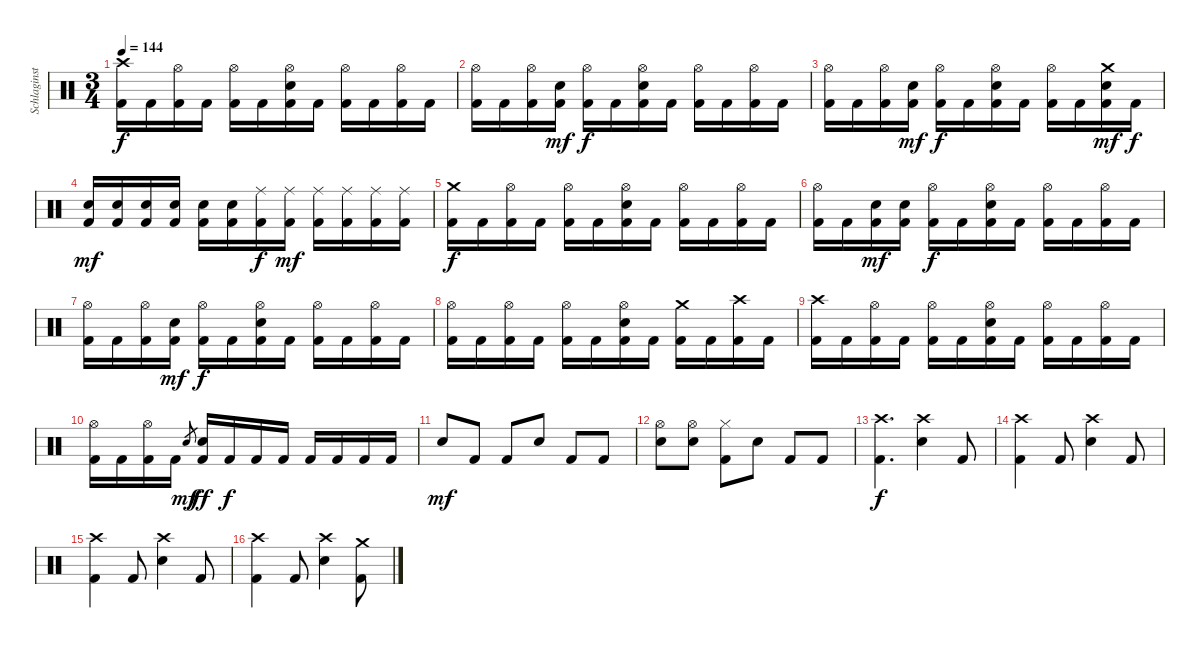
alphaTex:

\track ("Schlaginstrumente - Auswahl" "Schlaginst") {instrument percussion}
\staff {score}
\articulation defaults
\ts (3 4)
\tempo 144
\clef neutral
\ks c
("Crash high (hit)" "Kick (hit) 2").16{dy f} "Kick (hit) 2".16 ("Hi-Hat (open)" "Kick (hit) 2").16 "Kick (hit) 2".16 ("Hi-Hat (open)" "Kick (hit) 2").16 "Kick (hit) 2".16 ("Hi-Hat (open)" "Snare (hit) 2" "Kick (hit) 2").16 "Kick (hit) 2".16 ("Hi-Hat (open)" "Kick (hit) 2").16 "Kick (hit) 2".16 ("Hi-Hat (open)" "Kick (hit) 2").16 "Kick (hit) 2".16 |
("Hi-Hat (open)" "Kick (hit) 2").16 "Kick (hit) 2".16 ("Hi-Hat (open)" "Kick (hit) 2").16 ("Snare (hit) 2" "Kick (hit) 2").16{dy mf} ("Hi-Hat (open)" "Kick (hit) 2").16{dy f} "Kick (hit) 2".16 ("Hi-Hat (open)" "Snare (hit) 2" "Kick (hit) 2").16 "Kick (hit) 2".16 ("Hi-Hat (open)" "Kick (hit) 2").16 "Kick (hit) 2".16 ("Hi-Hat (open)" "Kick (hit) 2").16 "Kick (hit) 2".16 |
("Hi-Hat (open)" "Kick (hit) 2").16 "Kick (hit) 2".16 ("Hi-Hat (open)" "Kick (hit) 2").16 ("Snare (hit) 2" "Kick (hit) 2").16{dy mf} ("Hi-Hat (open)" "Kick (hit) 2").16{dy f} "Kick (hit) 2".16 ("Hi-Hat (open)" "Snare (hit) 2" "Kick (hit) 2").16 "Kick (hit) 2".16 ("Hi-Hat (open)" "Kick (hit) 2").16 "Kick (hit) 2".16 ("Crash medium (hit)" "Snare (hit) 2" "Kick (hit) 2").16{dy mf} "Kick (hit) 2".16{dy f} |
("Snare (hit) 2" "Kick (hit) 2").16{dy mf} ("Snare (hit) 2" "Kick (hit) 2").16 ("Snare (hit) 2" "Kick (hit) 2").16 ("Snare (hit) 2" "Kick (hit) 2").16 ("Snare (hit) 2" "Kick (hit) 2").16 ("Snare (hit) 2" "Kick (hit) 2").16 ("Ride (middle)" "Kick (hit) 2").16{dy f} ("Ride (middle)" "Kick (hit) 2").16{dy mf} ("Ride (middle)" "Kick (hit) 2").16 ("Ride (middle)" "Kick (hit) 2").16 ("Ride (middle)" "Kick (hit) 2").16 ("Ride (middle)" "Kick (hit) 2").16 |
("Crash medium (hit)" "Kick (hit) 2").16{dy f} "Kick (hit) 2".16 ("Hi-Hat (open)" "Kick (hit) 2").16 "Kick (hit) 2".16 ("Hi-Hat (open)" "Kick (hit) 2").16 "Kick (hit) 2".16 ("Hi-Hat (open)" "Snare (hit) 2" "Kick (hit) 2").16 "Kick (hit) 2".16 ("Hi-Hat (open)" "Kick (hit) 2").16 "Kick (hit) 2".16 ("Hi-Hat (open)" "Kick (hit) 2").16 "Kick (hit) 2".16 |
("Hi-Hat (open)" "Kick (hit) 2").16 "Kick (hit) 2".16 ("Snare (hit) 2" "Kick (hit) 2").16{dy mf} ("Snare (hit) 2" "Kick (hit) 2").16 ("Hi-Hat (open)" "Kick (hit) 2").16{dy f} "Kick (hit) 2".16 ("Hi-Hat (open)" "Snare (hit) 2" "Kick (hit) 2").16 "Kick (hit) 2".16 ("Hi-Hat (open)" "Kick (hit) 2").16 "Kick (hit) 2".16 ("Hi-Hat (open)" "Kick (hit) 2").16 "Kick (hit) 2".16 |
("Hi-Hat (open)" "Kick (hit) 2").16 "Kick (hit) 2".16 ("Hi-Hat (open)" "Kick (hit) 2").16 ("Snare (hit) 2" "Kick (hit) 2").16{dy mf} ("Hi-Hat (open)" "Kick (hit) 2").16{dy f} "Kick (hit) 2".16 ("Hi-Hat (open)" "Snare (hit) 2" "Kick (hit) 2").16 "Kick (hit) 2".16 ("Hi-Hat (open)" "Kick (hit) 2").16 "Kick (hit) 2".16 ("Hi-Hat (open)" "Kick (hit) 2").16 "Kick (hit) 2".16 |
("Hi-Hat (open)" "Kick (hit) 2").16 "Kick (hit) 2".16 ("Hi-Hat (open)" "Kick (hit) 2").16 "Kick (hit) 2".16 ("Hi-Hat (open)" "Kick (hit) 2").16 "Kick (hit) 2".16 ("Hi-Hat (open)" "Snare (hit) 2" "Kick (hit) 2").16 "Kick (hit) 2".16 ("Crash medium (hit)" "Kick (hit) 2").16 "Kick (hit) 2".16 ("Crash high (hit)" "Kick (hit) 2").16 "Kick (hit) 2".16 |
("Crash high (hit)" "Kick (hit) 2").16 "Kick (hit) 2".16 ("Hi-Hat (open)" "Kick (hit) 2").16 "Kick (hit) 2".16 ("Hi-Hat (open)" "Kick (hit) 2").16 "Kick (hit) 2".16 ("Hi-Hat (open)" "Snare (hit) 2" "Kick (hit) 2").16 "Kick (hit) 2".16 ("Hi-Hat (open)" "Kick (hit) 2").16 "Kick (hit) 2".16 ("Hi-Hat (open)" "Kick (hit) 2").16 "Kick (hit) 2".16 |
("Hi-Hat (open)" "Kick (hit) 2").16 "Kick (hit) 2".16 ("Hi-Hat (open)" "Kick (hit) 2").16 "Kick (hit) 2".16 "Snare (hit) 2".8{gr dy mf} ("Snare (hit) 2" "Kick (hit) 2").16{dy ff} "Kick (hit) 2".16{dy f} "Kick (hit) 2".16 "Kick (hit) 2".16 "Kick (hit) 2".16 "Kick (hit) 2".16 "Kick (hit) 2".16 "Kick (hit) 2".16 |
"Snare (hit) 2".8{dy mf} "Kick (hit) 2".8 "Kick (hit) 2".8 "Snare (hit) 2".8 "Kick (hit) 2".8 "Kick (hit) 2".8 |
("Hi-Hat (open)" "Snare (hit) 2").8 ("Hi-Hat (open)" "Snare (hit) 2").8 ("Hi-Hat (closed)" "Kick (hit) 2").8 "Snare (hit) 2".8 "Kick (hit) 2".8 "Kick (hit) 2".8 |
("Crash high (hit)" "Kick (hit) 2").4{d dy f} ("Crash high (hit)" "Snare (hit) 2").4 "Kick (hit) 2".8 |
("Crash high (hit)" "Kick (hit) 2").4 "Kick (hit) 2".8 ("Crash high (hit)" "Snare (hit) 2").4 "Kick (hit) 2".8 |
("Crash high (hit)" "Kick (hit) 2").4 "Kick (hit) 2".8 ("Crash high (hit)" "Snare (hit) 2").4 "Kick (hit) 2".8 |
("Crash high (hit)" "Kick (hit) 2").4 "Kick (hit) 2".8 ("Crash high (hit)" "Snare (hit) 2").4 ("Crash medium (hit)" "Kick (hit) 2").8
